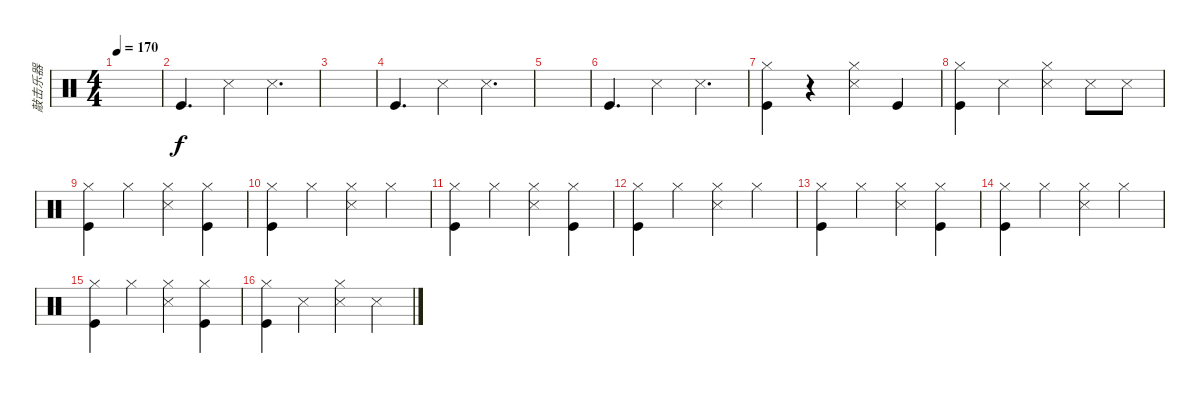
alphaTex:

\track ("敲击乐器" "敲击乐器") {instrument percussion}
\staff {score}
\articulation defaults
\ts (4 4)
\tempo 170
\clef neutral
\ks c
|
"Kick (hit)".4{d} "Snare (side stick) 3".4 "Snare (side stick) 3".4{d} |
|
"Kick (hit)".4{d} "Snare (side stick) 3".4 "Snare (side stick) 3".4{d} |
|
"Kick (hit)".4{d} "Snare (side stick) 3".4 "Snare (side stick) 3".4{d} |
("Hi-Hat (closed)" "Kick (hit)").4 r.4 ("Hi-Hat (closed)" "Snare (side stick) 3").4 "Kick (hit)".4 |
("Hi-Hat (closed)" "Kick (hit)").4 "Snare (side stick) 3".4 ("Hi-Hat (closed)" "Snare (side stick) 3").4 "Snare (side stick) 3".8 "Snare (side stick) 3".8 |
("Hi-Hat (closed)" "Kick (hit)").4 "Hi-Hat (closed)".4 ("Hi-Hat (closed)" "Snare (side stick) 3").4 ("Hi-Hat (closed)" "Kick (hit)").4 |
("Hi-Hat (closed)" "Kick (hit)").4 "Hi-Hat (closed)".4 ("Hi-Hat (closed)" "Snare (side stick) 3").4 "Hi-Hat (closed)".4 |
("Hi-Hat (closed)" "Kick (hit)").4 "Hi-Hat (closed)".4 ("Hi-Hat (closed)" "Snare (side stick) 3").4 ("Hi-Hat (closed)" "Kick (hit)").4 |
("Hi-Hat (closed)" "Kick (hit)").4 "Hi-Hat (closed)".4 ("Hi-Hat (closed)" "Snare (side stick) 3").4 "Hi-Hat (closed)".4 |
("Hi-Hat (closed)" "Kick (hit)").4 "Hi-Hat (closed)".4 ("Hi-Hat (closed)" "Snare (side stick) 3").4 ("Hi-Hat (closed)" "Kick (hit)").4 |
("Hi-Hat (closed)" "Kick (hit)").4 "Hi-Hat (closed)".4 ("Hi-Hat (closed)" "Snare (side stick) 3").4 "Hi-Hat (closed)".4 |
("Hi-Hat (closed)" "Kick (hit)").4 "Hi-Hat (closed)".4 ("Hi-Hat (closed)" "Snare (side stick) 3").4 ("Hi-Hat (closed)" "Kick (hit)").4 |
("Hi-Hat (closed)" "Kick (hit)").4 "Snare (side stick) 3".4 ("Hi-Hat (closed)" "Snare (side stick) 3").4 "Snare (side stick) 3".4
